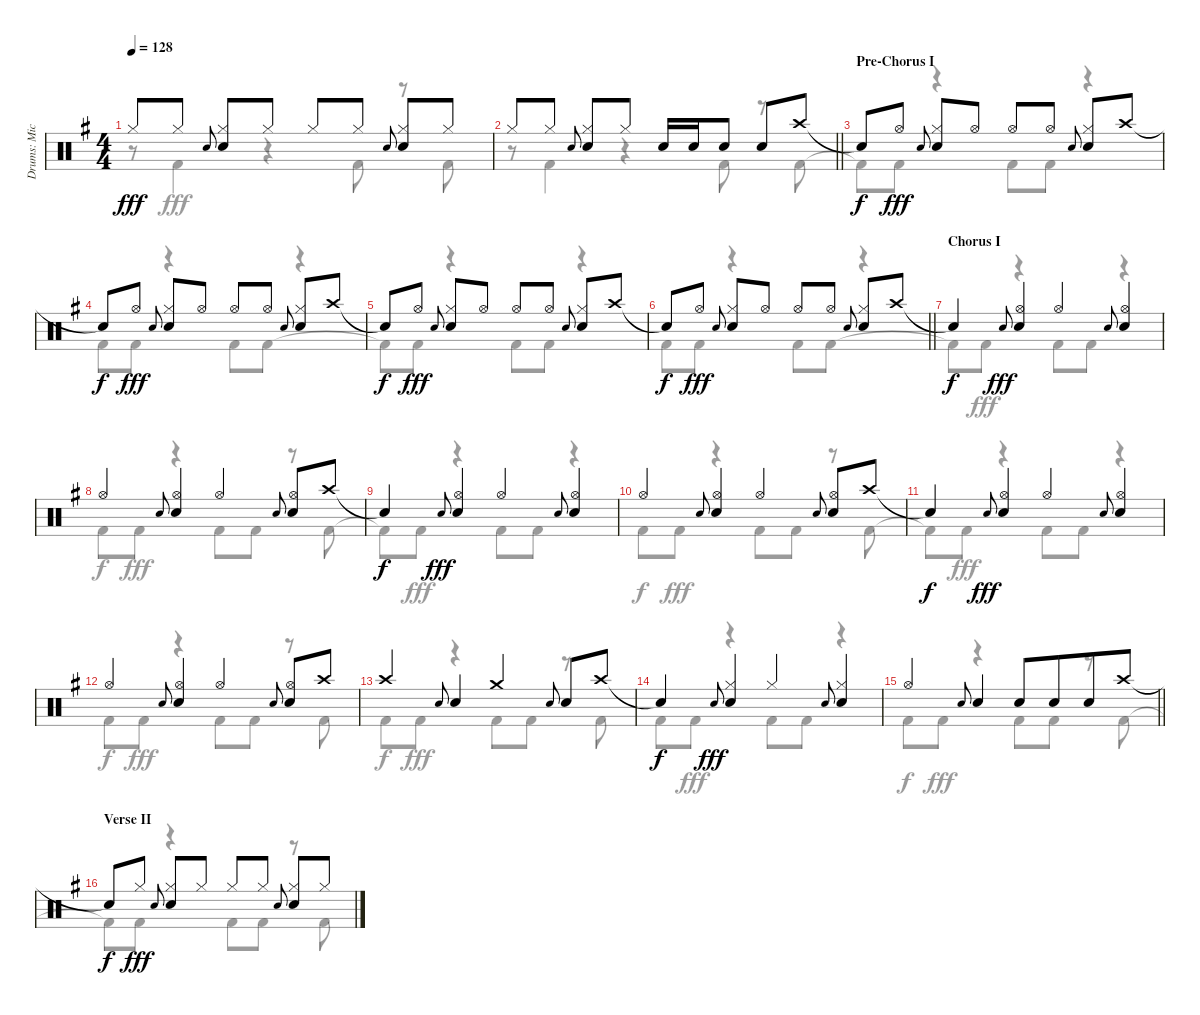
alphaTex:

\track ("Drums: Mick" "Drums: Mic") {instrument percussion}
\staff {score}
\articulation defaults
\voice
\ts (4 4)
\tempo 128
\clef neutral
\ks g "Hi-Hat (closed)".8{dy fff} "Hi-Hat (closed)".8 "Electric Snare (hit)".8{gr onbeat beam merge}
("Hi-Hat (closed)" "Snare (hit) 2").8 "Hi-Hat (closed)".8 "Hi-Hat (closed)".8 "Hi-Hat (closed)".8 "Electric Snare (hit)".8{gr onbeat beam merge} ("Hi-Hat (closed)" "Snare (hit) 2").8 "Hi-Hat (closed)".8 |
\barLineRight lightlight "Hi-Hat (closed)".8 "Hi-Hat (closed)".8 "Electric Snare (hit)".8{gr onbeat beam merge}
("Hi-Hat (closed)" "Snare (hit) 2").8 "Hi-Hat (closed)".8 "Snare (hit) 2".16 "Snare (hit) 2".16 "Snare (hit) 2".8 "Snare (hit) 2".8 "Crash high (hit)".8 |
\section ("" "Pre-Chorus I")
"Snare (hit)"{t}.8{dy f} "Hi-Hat (open)".8{dy fff} "Electric Snare (hit)".8{gr onbeat beam merge} ("Hi-Hat (closed)" "Snare (hit) 2").8 "Hi-Hat (open)".8 "Hi-Hat (open)".8 "Hi-Hat (open)".8 "Electric Snare (hit)".8{gr onbeat beam merge} ("Hi-Hat (closed)" "Snare (hit) 2").8 "Crash high (hit)".8 |
"Snare (hit)"{t}.8{dy f} "Hi-Hat (open)".8{dy fff} "Electric Snare (hit)".8{gr onbeat beam merge} ("Hi-Hat (closed)" "Snare (hit) 2").8 "Hi-Hat (open)".8 "Hi-Hat (open)".8 "Hi-Hat (open)".8 "Electric Snare (hit)".8{gr onbeat beam merge} ("Hi-Hat (closed)" "Snare (hit) 2").8 "Crash high (hit)".8 |
"Snare (hit)"{t}.8{dy f} "Hi-Hat (open)".8{dy fff} "Electric Snare (hit)".8{gr onbeat beam merge} ("Hi-Hat (closed)" "Snare (hit) 2").8 "Hi-Hat (open)".8 "Hi-Hat (open)".8 "Hi-Hat (open)".8 "Electric Snare (hit)".8{gr onbeat beam merge} ("Hi-Hat (closed)" "Snare (hit) 2").8 "Crash high (hit)".8 |
\barLineRight lightlight "Snare (hit)"{t}.8{dy f} "Hi-Hat (open)".8{dy fff} "Electric Snare (hit)".8{gr onbeat beam merge}
("Hi-Hat (closed)" "Snare (hit) 2").8 "Hi-Hat (open)".8 "Hi-Hat (open)".8 "Hi-Hat (open)".8 "Electric Snare (hit)".8{gr onbeat beam merge} ("Hi-Hat (closed)" "Snare (hit) 2").8 "Crash high (hit)".8 |
\section ("" "Chorus I")
"Snare (hit)"{t}.4{dy f} "Electric Snare (hit)".8{gr onbeat dy fff} ("Hi-Hat (open)" "Snare (hit) 2").4 "Hi-Hat (open)".4 "Electric Snare (hit)".8{gr onbeat} ("Hi-Hat (open)" "Snare (hit) 2").4 |
"Hi-Hat (open)".4 "Electric Snare (hit)".8{gr onbeat} ("Hi-Hat (open)" "Snare (hit) 2").4 "Hi-Hat (open)".4 "Electric Snare (hit)".8{gr onbeat} ("Hi-Hat (open)" "Snare (hit) 2").8 "Crash high (hit)".8 |
"Snare (hit)"{t}.4{dy f} "Electric Snare (hit)".8{gr onbeat dy fff} ("Hi-Hat (open)" "Snare (hit) 2").4 "Hi-Hat (open)".4 "Electric Snare (hit)".8{gr onbeat} ("Hi-Hat (open)" "Snare (hit) 2").4 |
"Hi-Hat (open)".4 "Electric Snare (hit)".8{gr onbeat} ("Hi-Hat (open)" "Snare (hit) 2").4 "Hi-Hat (open)".4 "Electric Snare (hit)".8{gr onbeat} ("Hi-Hat (open)" "Snare (hit) 2").8 "Crash high (hit)".8 |
"Snare (hit)"{t}.4{dy f} "Electric Snare (hit)".8{gr onbeat dy fff} ("Hi-Hat (open)" "Snare (hit) 2").4 "Hi-Hat (open)".4 "Electric Snare (hit)".8{gr onbeat} ("Hi-Hat (open)" "Snare (hit) 2").4 |
"Hi-Hat (open)".4 "Electric Snare (hit)".8{gr onbeat} ("Hi-Hat (open)" "Snare (hit) 2").4 "Hi-Hat (open)".4 "Electric Snare (hit)".8{gr onbeat} ("Hi-Hat (open)" "Snare (hit) 2").8 "Crash high (hit)".8 |
"Crash high (hit)".4 "Electric Snare (hit)".8{gr onbeat} "Snare (hit) 2".4 "Crash medium (hit)".4 "Electric Snare (hit)".8{gr onbeat} "Snare (hit) 2".8 "Crash high (hit)".8 |
"Snare (hit)"{t}.4{dy f} "Electric Snare (hit)".8{gr onbeat dy fff} ("Hi-Hat (closed)" "Snare (hit) 2").4 "Hi-Hat (closed)".4 "Electric Snare (hit)".8{gr onbeat} ("Hi-Hat (closed)" "Snare (hit) 2").4 |
\barLineRight lightlight "Hi-Hat (open)".4 "Electric Snare (hit)".8{gr onbeat} "Snare (hit) 2".4 "Snare (hit) 2".8 "Snare (hit) 2".8{beam merge} "Snare (hit) 2".8 "Crash high (hit)".8
|
\section ("" "Verse II")
"Snare (hit)"{t}.8{dy f} "Hi-Hat (closed)".8{dy fff} "Electric Snare (hit)".8{gr onbeat beam merge} ("Hi-Hat (closed)" "Snare (hit) 2").8 "Hi-Hat (closed)".8 "Hi-Hat (closed)".8 "Hi-Hat (closed)".8 "Electric Snare (hit)".8{gr onbeat beam merge} ("Hi-Hat (closed)" "Snare (hit) 2").8 "Hi-Hat (closed)".8
\voice
\clef neutral
\ottava regular
\simile none
\ks g
r.8{dy fff} "Kick (hit) 2".4 r.4 "Kick (hit) 2".8 r.8 "Kick (hit) 2".8 |
\barLineRight lightlight
r.8 "Kick (hit) 2".4 r.4 "Kick (hit) 2".8 r.8 "Kick (hit) 2".8 |
"Kick (hit) 2"{t}.8{dy f} "Kick (hit) 2".8{dy fff} r.4 "Kick (hit) 2".8 "Kick (hit) 2".8 r.4 |
"Kick (hit) 2".8{dy f} "Kick (hit) 2".8{dy fff} r.4 "Kick (hit) 2".8 "Kick (hit) 2".8 r.4 |
"Kick (hit) 2"{t}.8{dy f} "Kick (hit) 2".8{dy fff} r.4 "Kick (hit) 2".8 "Kick (hit) 2".8 r.4 |
\barLineRight lightlight "Kick (hit) 2".8{dy f} "Kick (hit) 2".8{dy fff}
r.4 "Kick (hit) 2".8 "Kick (hit) 2".8 r.4 |
"Kick (hit) 2"{t}.8{dy f} "Kick (hit) 2".8{dy fff} r.4 "Kick (hit) 2".8 "Kick (hit) 2".8 r.4 |
"Kick (hit) 2".8{dy f} "Kick (hit) 2".8{dy fff} r.4 "Kick (hit) 2".8 "Kick (hit) 2".8 r.8 "Kick (hit) 2".8 |
"Kick (hit) 2"{t}.8{dy f} "Kick (hit) 2".8{dy fff} r.4 "Kick (hit) 2".8 "Kick (hit) 2".8 r.4 |
"Kick (hit) 2".8{dy f} "Kick (hit) 2".8{dy fff} r.4 "Kick (hit) 2".8 "Kick (hit) 2".8 r.8 "Kick (hit) 2".8 |
"Kick (hit) 2"{t}.8{dy f} "Kick (hit) 2".8{dy fff} r.4 "Kick (hit) 2".8 "Kick (hit) 2".8 r.4 |
"Kick (hit) 2".8{dy f} "Kick (hit) 2".8{dy fff} r.4 "Kick (hit) 2".8 "Kick (hit) 2".8 r.8 "Kick (hit) 2".8 |
"Kick (hit) 2".8{dy f} "Kick (hit) 2".8{dy fff} r.4 "Kick (hit) 2".8 "Kick (hit) 2".8 r.8 "Kick (hit) 2".8 |
"Kick (hit) 2".8{dy f} "Kick (hit) 2".8{dy fff} r.4 "Kick (hit) 2".8 "Kick (hit) 2".8 r.4 |
\barLineRight lightlight "Kick (hit) 2".8{dy f} "Kick (hit) 2".8{dy fff}
r.4 "Kick (hit) 2".8 "Kick (hit) 2".8 r.8 "Kick (hit) 2".8 |
"Kick (hit) 2"{t}.8{dy f} "Kick (hit) 2".8{dy fff} r.4 "Kick (hit) 2".8 "Kick (hit) 2".8 r.8 "Kick (hit) 2".8
